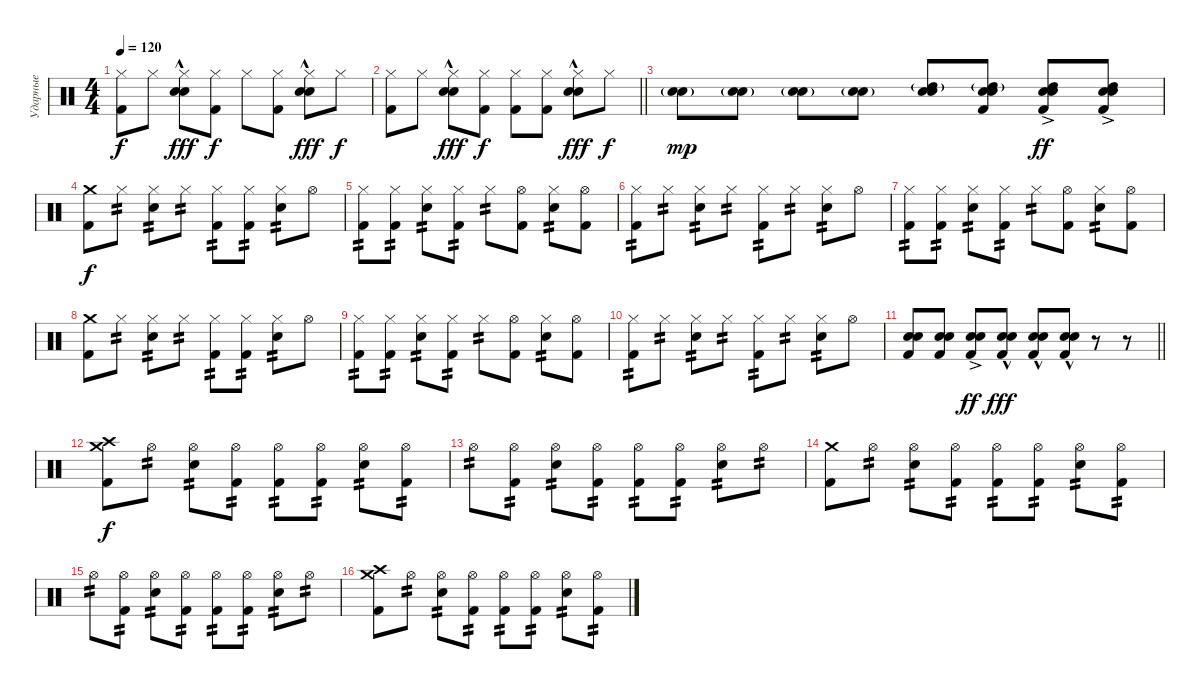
\track ("Ударные" "Ударные") {instrument percussion}
\staff {score}
\articulation defaults
\ts (4 4)
\tempo 120
\clef neutral
\ks c
("Hi-Hat (closed)" "Kick (hit) 2").8{dy f} "Hi-Hat (closed)".8 ("Hi-Hat (closed)" "Electric Snare (hit)" "Hand Clap (hit)"{hac}).8{dy fff} ("Hi-Hat (closed)" "Kick (hit) 2").8{dy f} "Hi-Hat (closed)".8 ("Hi-Hat (closed)" "Kick (hit) 2").8 ("Hi-Hat (closed)" "Electric Snare (hit)" "Hand Clap (hit)"{hac}).8{dy fff} "Hi-Hat (closed)".8{dy f} |
\barLineRight lightlight
("Hi-Hat (closed)" "Kick (hit) 2").8 "Hi-Hat (closed)".8 ("Hi-Hat (closed)" "Electric Snare (hit)" "Hand Clap (hit)"{hac}).8{dy fff} ("Hi-Hat (closed)" "Kick (hit) 2").8{dy f} ("Hi-Hat (closed)" "Kick (hit) 2").8 ("Hi-Hat (closed)" "Kick (hit) 2").8 ("Hi-Hat (closed)" "Electric Snare (hit)" "Hand Clap (hit)"{hac}).8{dy fff} "Hi-Hat (closed)".8{dy f} |
("Electric Snare (hit)"{g} "Electric Snare (hit)"{g}).8{dy mp} ("Electric Snare (hit)"{g} "Electric Snare (hit)"{g}).8 ("Electric Snare (hit)"{g} "Electric Snare (hit)"{g}).8 ("Electric Snare (hit)" "Electric Snare (hit)"{g}).8 ("High Tom (hit)"{g} "Electric Snare (hit)" "Electric Snare (hit)").8 ("High Tom (hit)"{g} "Electric Snare (hit)" "Electric Snare (hit)" "Kick (hit) 2").8 ("High Tom (hit)"{ac} "Electric Snare (hit)" "Electric Snare (hit)" "Kick (hit) 2").8{dy ff} ("High Tom (hit)"{ac} "Electric Snare (hit)" "Electric Snare (hit)" "Kick (hit) 2").8 |
("Kick (hit) 2" "Crash medium (hit)").8{dy f} "Hi-Hat (closed)".8{tp 2} ("Hi-Hat (closed)" "Electric Snare (hit)").8{tp 2} "Hi-Hat (closed)".8{tp 2} ("Hi-Hat (closed)" "Kick (hit) 2").8{tp 2} ("Hi-Hat (closed)" "Kick (hit) 2").8{tp 2} ("Hi-Hat (closed)" "Electric Snare (hit)").8{tp 2} "Hi-Hat (open)".8 |
("Kick (hit) 2" "Hi-Hat (closed)").8{tp 2} ("Kick (hit) 2" "Hi-Hat (closed)").8{tp 2} ("Electric Snare (hit)" "Hi-Hat (closed)").8{tp 2} ("Kick (hit) 2" "Hi-Hat (closed)").8{tp 2} "Hi-Hat (closed)".8{tp 2} ("Kick (hit) 2" "Hi-Hat (open)").8 ("Electric Snare (hit)" "Hi-Hat (closed)").8{tp 2} ("Kick (hit) 2" "Hi-Hat (open)").8 |
("Kick (hit) 2" "Hi-Hat (closed)").8{tp 2} "Hi-Hat (closed)".8{tp 2} ("Electric Snare (hit)" "Hi-Hat (closed)").8{tp 2} "Hi-Hat (closed)".8{tp 2} ("Kick (hit) 2" "Hi-Hat (closed)").8{tp 2} "Hi-Hat (closed)".8{tp 2} ("Electric Snare (hit)" "Hi-Hat (closed)").8{tp 2} "Hi-Hat (open)".8 |
("Kick (hit) 2" "Hi-Hat (closed)").8{tp 2} ("Kick (hit) 2" "Hi-Hat (closed)").8{tp 2} ("Electric Snare (hit)" "Hi-Hat (closed)").8{tp 2} ("Kick (hit) 2" "Hi-Hat (closed)").8{tp 2} "Hi-Hat (closed)".8{tp 2} ("Kick (hit) 2" "Hi-Hat (open)").8 ("Electric Snare (hit)" "Hi-Hat (closed)").8{tp 2} ("Kick (hit) 2" "Hi-Hat (open)").8 |
("Kick (hit) 2" "Crash medium (hit)").8 "Hi-Hat (closed)".8{tp 2} ("Hi-Hat (closed)" "Electric Snare (hit)").8{tp 2} "Hi-Hat (closed)".8{tp 2} ("Hi-Hat (closed)" "Kick (hit) 2").8{tp 2} ("Hi-Hat (closed)" "Kick (hit) 2").8{tp 2} ("Hi-Hat (closed)" "Electric Snare (hit)").8{tp 2} "Hi-Hat (open)".8 |
("Kick (hit) 2" "Hi-Hat (closed)").8{tp 2} ("Kick (hit) 2" "Hi-Hat (closed)").8{tp 2} ("Electric Snare (hit)" "Hi-Hat (closed)").8{tp 2} ("Kick (hit) 2" "Hi-Hat (closed)").8{tp 2} "Hi-Hat (closed)".8{tp 2} ("Kick (hit) 2" "Hi-Hat (open)").8 ("Electric Snare (hit)" "Hi-Hat (closed)").8{tp 2} ("Kick (hit) 2" "Hi-Hat (open)").8 |
("Kick (hit) 2" "Hi-Hat (closed)").8{tp 2} "Hi-Hat (closed)".8{tp 2} ("Electric Snare (hit)" "Hi-Hat (closed)").8{tp 2} "Hi-Hat (closed)".8{tp 2} ("Kick (hit) 2" "Hi-Hat (closed)").8{tp 2} "Hi-Hat (closed)".8{tp 2} ("Electric Snare (hit)" "Hi-Hat (closed)").8{tp 2} "Hi-Hat (open)".8 |
\barLineRight lightlight
("Electric Snare (hit)" "Electric Snare (hit)" "Kick (hit) 2").8 ("Electric Snare (hit)" "Electric Snare (hit)" "Kick (hit) 2").8 ("Electric Snare (hit)"{ac} "Electric Snare (hit)"{ac} "Kick (hit) 2").8{dy ff} ("Electric Snare (hit)"{hac} "Electric Snare (hit)"{hac} "Kick (hit) 2").8{dy fff} ("Electric Snare (hit)"{hac} "Electric Snare (hit)"{hac} "Kick (hit) 2").8 ("Electric Snare (hit)"{hac} "Electric Snare (hit)"{hac} "Kick (hit) 2").8 r.8 r.8 |
("Crash high (hit)" "Crash medium (hit)" "Kick (hit) 2").8{dy f} "Hi-Hat (open)".8{tp 2} ("Hi-Hat (open)" "Electric Snare (hit)").8{tp 2} ("Hi-Hat (open)" "Kick (hit) 2").8{tp 2} ("Hi-Hat (open)" "Kick (hit) 2").8{tp 2} ("Hi-Hat (open)" "Kick (hit) 2").8{tp 2} ("Hi-Hat (open)" "Electric Snare (hit)").8{tp 2} ("Hi-Hat (open)" "Kick (hit) 2").8{tp 2} |
"Hi-Hat (open)".8{tp 2} ("Hi-Hat (open)" "Kick (hit) 2").8{tp 2} ("Hi-Hat (open)" "Electric Snare (hit)").8{tp 2} ("Hi-Hat (open)" "Kick (hit) 2").8{tp 2} ("Hi-Hat (open)" "Kick (hit) 2").8{tp 2} ("Hi-Hat (open)" "Kick (hit) 2").8{tp 2} ("Hi-Hat (open)" "Electric Snare (hit)").8{tp 2} "Hi-Hat (open)".8{tp 2} |
("Crash medium (hit)" "Kick (hit) 2").8 "Hi-Hat (open)".8{tp 2} ("Hi-Hat (open)" "Electric Snare (hit)").8{tp 2} ("Hi-Hat (open)" "Kick (hit) 2").8{tp 2} ("Hi-Hat (open)" "Kick (hit) 2").8{tp 2} ("Hi-Hat (open)" "Kick (hit) 2").8{tp 2} ("Hi-Hat (open)" "Electric Snare (hit)").8{tp 2} ("Hi-Hat (open)" "Kick (hit) 2").8{tp 2} |
"Hi-Hat (open)".8{tp 2} ("Hi-Hat (open)" "Kick (hit) 2").8{tp 2} ("Hi-Hat (open)" "Electric Snare (hit)").8{tp 2} ("Hi-Hat (open)" "Kick (hit) 2").8{tp 2} ("Hi-Hat (open)" "Kick (hit) 2").8{tp 2} ("Hi-Hat (open)" "Kick (hit) 2").8{tp 2} ("Hi-Hat (open)" "Electric Snare (hit)").8{tp 2} "Hi-Hat (open)".8{tp 2} |
("Crash high (hit)" "Crash medium (hit)" "Kick (hit) 2").8 "Hi-Hat (open)".8{tp 2} ("Hi-Hat (open)" "Electric Snare (hit)").8{tp 2} ("Hi-Hat (open)" "Kick (hit) 2").8{tp 2} ("Hi-Hat (open)" "Kick (hit) 2").8{tp 2} ("Hi-Hat (open)" "Kick (hit) 2").8{tp 2} ("Hi-Hat (open)" "Electric Snare (hit)").8{tp 2} ("Hi-Hat (open)" "Kick (hit) 2").8{tp 2}
